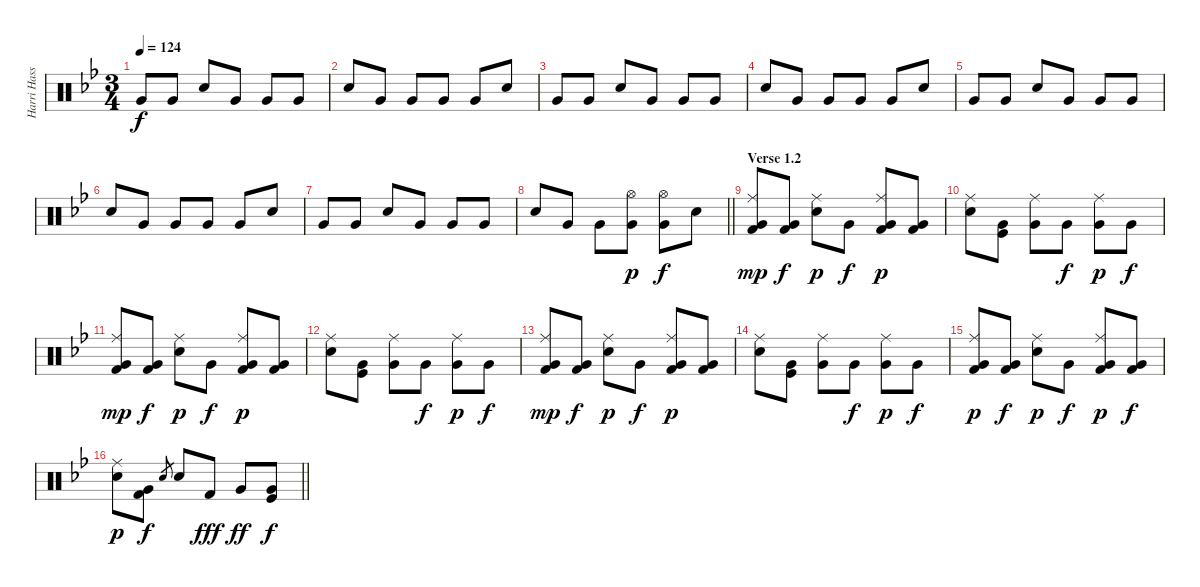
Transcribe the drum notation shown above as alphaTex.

\track ("Harri Hassin (drums)" "Harri Hass") {instrument percussion}
\staff {score}
\articulation defaults
\ts (3 4)
\tempo 124
\clef neutral
\ks bb "Very Low Tom (hit)".8{dy f} "Very Low Tom (hit)".8 "Electric Snare (hit)".8 "Very Low Tom (hit)".8 "Very Low Tom (hit)".8 "Very Low Tom (hit)".8
|
"Electric Snare (hit)".8 "Very Low Tom (hit)".8 "Very Low Tom (hit)".8 "Very Low Tom (hit)".8 "Very Low Tom (hit)".8 "Electric Snare (hit)".8 |
"Very Low Tom (hit)".8 "Very Low Tom (hit)".8 "Electric Snare (hit)".8 "Very Low Tom (hit)".8 "Very Low Tom (hit)".8 "Very Low Tom (hit)".8 |
"Electric Snare (hit)".8 "Very Low Tom (hit)".8 "Very Low Tom (hit)".8 "Very Low Tom (hit)".8 "Very Low Tom (hit)".8 "Electric Snare (hit)".8 |
"Very Low Tom (hit)".8 "Very Low Tom (hit)".8 "Electric Snare (hit)".8 "Very Low Tom (hit)".8 "Very Low Tom (hit)".8 "Very Low Tom (hit)".8 |
"Electric Snare (hit)".8 "Very Low Tom (hit)".8 "Very Low Tom (hit)".8 "Very Low Tom (hit)".8 "Very Low Tom (hit)".8 "Electric Snare (hit)".8 |
"Very Low Tom (hit)".8 "Very Low Tom (hit)".8 "Electric Snare (hit)".8 "Very Low Tom (hit)".8 "Very Low Tom (hit)".8 "Very Low Tom (hit)".8 |
\barLineRight lightlight "Electric Snare (hit)".8 "Very Low Tom (hit)".8 "Very Low Tom (hit)".8
("Hi-Hat (open)" "Very Low Tom (hit)").8{dy p} ("Hi-Hat (open)" "Very Low Tom (hit)").8{dy f} "Electric Snare (hit)".8 |
\section ("" "Verse 1.2")
("Ride (middle)" "Very Low Tom (hit)" "Kick (hit) 2").8{dy mp} ("Very Low Tom (hit)" "Kick (hit) 2").8{dy f} ("Ride (middle)" "Electric Snare (hit)").8{dy p} "Very Low Tom (hit)".8{dy f} ("Ride (middle)" "Very Low Tom (hit)" "Kick (hit) 2").8{dy p} ("Very Low Tom (hit)" "Kick (hit) 2").8 |
("Ride (middle)" "Electric Snare (hit)").8 ("Very Low Tom (hit)" "Kick (hit)").8 ("Ride (middle)" "Very Low Tom (hit)").8 "Very Low Tom (hit)".8{dy f} ("Ride (middle)" "Very Low Tom (hit)").8{dy p} "Very Low Tom (hit)".8{dy f} |
("Ride (middle)" "Very Low Tom (hit)" "Kick (hit) 2").8{dy mp} ("Very Low Tom (hit)" "Kick (hit) 2").8{dy f} ("Ride (middle)" "Electric Snare (hit)").8{dy p} "Very Low Tom (hit)".8{dy f} ("Ride (middle)" "Very Low Tom (hit)" "Kick (hit) 2").8{dy p} ("Very Low Tom (hit)" "Kick (hit) 2").8 |
("Ride (middle)" "Electric Snare (hit)").8 ("Very Low Tom (hit)" "Kick (hit)").8 ("Ride (middle)" "Very Low Tom (hit)").8 "Very Low Tom (hit)".8{dy f} ("Ride (middle)" "Very Low Tom (hit)").8{dy p} "Very Low Tom (hit)".8{dy f} |
("Ride (middle)" "Very Low Tom (hit)" "Kick (hit) 2").8{dy mp} ("Very Low Tom (hit)" "Kick (hit) 2").8{dy f} ("Ride (middle)" "Electric Snare (hit)").8{dy p} "Very Low Tom (hit)".8{dy f} ("Ride (middle)" "Very Low Tom (hit)" "Kick (hit) 2").8{dy p} ("Very Low Tom (hit)" "Kick (hit) 2").8 |
("Ride (middle)" "Electric Snare (hit)").8 ("Very Low Tom (hit)" "Kick (hit)").8 ("Ride (middle)" "Very Low Tom (hit)").8 "Very Low Tom (hit)".8{dy f} ("Ride (middle)" "Very Low Tom (hit)").8{dy p} "Very Low Tom (hit)".8{dy f} |
("Ride (middle)" "Very Low Tom (hit)" "Kick (hit) 2").8{dy p} ("Very Low Tom (hit)" "Kick (hit) 2").8{dy f} ("Ride (middle)" "Electric Snare (hit)").8{dy p} "Very Low Tom (hit)".8{dy f} ("Ride (middle)" "Very Low Tom (hit)" "Kick (hit) 2").8{dy p} ("Very Low Tom (hit)" "Kick (hit) 2").8{dy f} |
\barLineRight lightlight
("Ride (middle)" "Electric Snare (hit)").8{dy p} ("Very Low Tom (hit)" "Kick (hit) 2").8{dy f} "Electric Snare (hit)".8{gr} "Snare (hit) 2".8 "Kick (hit) 2".8{dy fff} "Very Low Tom (hit)".8{dy ff} ("Very Low Tom (hit)" "Kick (hit)").8{dy f}
